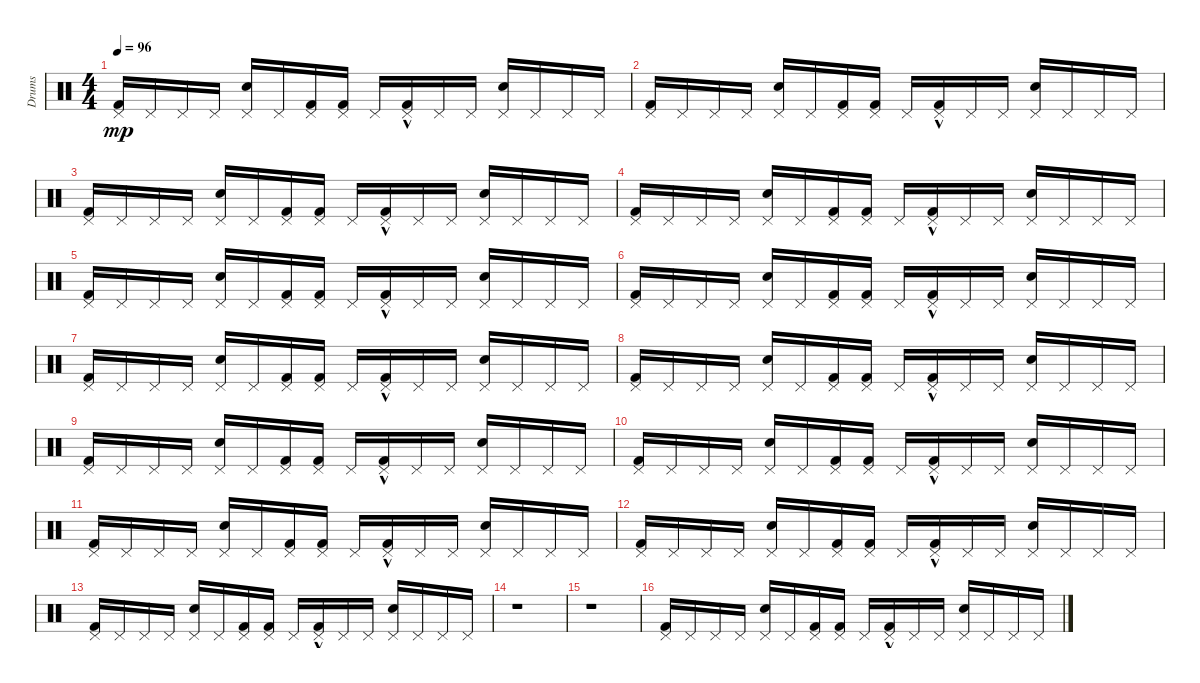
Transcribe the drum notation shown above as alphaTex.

\track ("Drums" "Drums") {instrument percussion}
\staff {score}
\articulation defaults
\ts (4 4)
\tempo 96
\clef neutral
\ks c
("Pedal Hi-Hat (hit)" "Kick (hit) 2").16{dy mp} "Pedal Hi-Hat (hit)".16 "Pedal Hi-Hat (hit)".16 "Pedal Hi-Hat (hit)".16 ("Electric Snare (hit)" "Pedal Hi-Hat (hit)").16 "Pedal Hi-Hat (hit)".16 ("Pedal Hi-Hat (hit)" "Kick (hit) 2").16 ("Pedal Hi-Hat (hit)" "Kick (hit) 2").16 "Pedal Hi-Hat (hit)".16 ("Pedal Hi-Hat (hit)" "Kick (hit) 2"{hac}).16 "Pedal Hi-Hat (hit)".16 "Pedal Hi-Hat (hit)".16 ("Electric Snare (hit)" "Pedal Hi-Hat (hit)").16 "Pedal Hi-Hat (hit)".16 "Pedal Hi-Hat (hit)".16 "Pedal Hi-Hat (hit)".16 |
("Pedal Hi-Hat (hit)" "Kick (hit) 2").16 "Pedal Hi-Hat (hit)".16 "Pedal Hi-Hat (hit)".16 "Pedal Hi-Hat (hit)".16 ("Electric Snare (hit)" "Pedal Hi-Hat (hit)").16 "Pedal Hi-Hat (hit)".16 ("Pedal Hi-Hat (hit)" "Kick (hit) 2").16 ("Pedal Hi-Hat (hit)" "Kick (hit) 2").16 "Pedal Hi-Hat (hit)".16 ("Pedal Hi-Hat (hit)" "Kick (hit) 2"{hac}).16 "Pedal Hi-Hat (hit)".16 "Pedal Hi-Hat (hit)".16 ("Electric Snare (hit)" "Pedal Hi-Hat (hit)").16 "Pedal Hi-Hat (hit)".16 "Pedal Hi-Hat (hit)".16 "Pedal Hi-Hat (hit)".16 |
("Pedal Hi-Hat (hit)" "Kick (hit) 2").16 "Pedal Hi-Hat (hit)".16 "Pedal Hi-Hat (hit)".16 "Pedal Hi-Hat (hit)".16 ("Electric Snare (hit)" "Pedal Hi-Hat (hit)").16 "Pedal Hi-Hat (hit)".16 ("Pedal Hi-Hat (hit)" "Kick (hit) 2").16 ("Pedal Hi-Hat (hit)" "Kick (hit) 2").16 "Pedal Hi-Hat (hit)".16 ("Pedal Hi-Hat (hit)" "Kick (hit) 2"{hac}).16 "Pedal Hi-Hat (hit)".16 "Pedal Hi-Hat (hit)".16 ("Electric Snare (hit)" "Pedal Hi-Hat (hit)").16 "Pedal Hi-Hat (hit)".16 "Pedal Hi-Hat (hit)".16 "Pedal Hi-Hat (hit)".16 |
("Pedal Hi-Hat (hit)" "Kick (hit) 2").16 "Pedal Hi-Hat (hit)".16 "Pedal Hi-Hat (hit)".16 "Pedal Hi-Hat (hit)".16 ("Electric Snare (hit)" "Pedal Hi-Hat (hit)").16 "Pedal Hi-Hat (hit)".16 ("Pedal Hi-Hat (hit)" "Kick (hit) 2").16 ("Pedal Hi-Hat (hit)" "Kick (hit) 2").16 "Pedal Hi-Hat (hit)".16 ("Pedal Hi-Hat (hit)" "Kick (hit) 2"{hac}).16 "Pedal Hi-Hat (hit)".16 "Pedal Hi-Hat (hit)".16 ("Electric Snare (hit)" "Pedal Hi-Hat (hit)").16 "Pedal Hi-Hat (hit)".16 "Pedal Hi-Hat (hit)".16 "Pedal Hi-Hat (hit)".16 |
("Pedal Hi-Hat (hit)" "Kick (hit) 2").16 "Pedal Hi-Hat (hit)".16 "Pedal Hi-Hat (hit)".16 "Pedal Hi-Hat (hit)".16 ("Electric Snare (hit)" "Pedal Hi-Hat (hit)").16 "Pedal Hi-Hat (hit)".16 ("Pedal Hi-Hat (hit)" "Kick (hit) 2").16 ("Pedal Hi-Hat (hit)" "Kick (hit) 2").16 "Pedal Hi-Hat (hit)".16 ("Pedal Hi-Hat (hit)" "Kick (hit) 2"{hac}).16 "Pedal Hi-Hat (hit)".16 "Pedal Hi-Hat (hit)".16 ("Electric Snare (hit)" "Pedal Hi-Hat (hit)").16 "Pedal Hi-Hat (hit)".16 "Pedal Hi-Hat (hit)".16 "Pedal Hi-Hat (hit)".16 |
("Pedal Hi-Hat (hit)" "Kick (hit) 2").16 "Pedal Hi-Hat (hit)".16 "Pedal Hi-Hat (hit)".16 "Pedal Hi-Hat (hit)".16 ("Electric Snare (hit)" "Pedal Hi-Hat (hit)").16 "Pedal Hi-Hat (hit)".16 ("Pedal Hi-Hat (hit)" "Kick (hit) 2").16 ("Pedal Hi-Hat (hit)" "Kick (hit) 2").16 "Pedal Hi-Hat (hit)".16 ("Pedal Hi-Hat (hit)" "Kick (hit) 2"{hac}).16 "Pedal Hi-Hat (hit)".16 "Pedal Hi-Hat (hit)".16 ("Electric Snare (hit)" "Pedal Hi-Hat (hit)").16 "Pedal Hi-Hat (hit)".16 "Pedal Hi-Hat (hit)".16 "Pedal Hi-Hat (hit)".16 |
("Pedal Hi-Hat (hit)" "Kick (hit) 2").16 "Pedal Hi-Hat (hit)".16 "Pedal Hi-Hat (hit)".16 "Pedal Hi-Hat (hit)".16 ("Electric Snare (hit)" "Pedal Hi-Hat (hit)").16 "Pedal Hi-Hat (hit)".16 ("Pedal Hi-Hat (hit)" "Kick (hit) 2").16 ("Pedal Hi-Hat (hit)" "Kick (hit) 2").16 "Pedal Hi-Hat (hit)".16 ("Pedal Hi-Hat (hit)" "Kick (hit) 2"{hac}).16 "Pedal Hi-Hat (hit)".16 "Pedal Hi-Hat (hit)".16 ("Electric Snare (hit)" "Pedal Hi-Hat (hit)").16 "Pedal Hi-Hat (hit)".16 "Pedal Hi-Hat (hit)".16 "Pedal Hi-Hat (hit)".16 |
("Pedal Hi-Hat (hit)" "Kick (hit) 2").16 "Pedal Hi-Hat (hit)".16 "Pedal Hi-Hat (hit)".16 "Pedal Hi-Hat (hit)".16 ("Electric Snare (hit)" "Pedal Hi-Hat (hit)").16 "Pedal Hi-Hat (hit)".16 ("Pedal Hi-Hat (hit)" "Kick (hit) 2").16 ("Pedal Hi-Hat (hit)" "Kick (hit) 2").16 "Pedal Hi-Hat (hit)".16 ("Pedal Hi-Hat (hit)" "Kick (hit) 2"{hac}).16 "Pedal Hi-Hat (hit)".16 "Pedal Hi-Hat (hit)".16 ("Electric Snare (hit)" "Pedal Hi-Hat (hit)").16 "Pedal Hi-Hat (hit)".16 "Pedal Hi-Hat (hit)".16 "Pedal Hi-Hat (hit)".16 |
("Pedal Hi-Hat (hit)" "Kick (hit) 2").16 "Pedal Hi-Hat (hit)".16 "Pedal Hi-Hat (hit)".16 "Pedal Hi-Hat (hit)".16 ("Electric Snare (hit)" "Pedal Hi-Hat (hit)").16 "Pedal Hi-Hat (hit)".16 ("Pedal Hi-Hat (hit)" "Kick (hit) 2").16 ("Pedal Hi-Hat (hit)" "Kick (hit) 2").16 "Pedal Hi-Hat (hit)".16 ("Pedal Hi-Hat (hit)" "Kick (hit) 2"{hac}).16 "Pedal Hi-Hat (hit)".16 "Pedal Hi-Hat (hit)".16 ("Electric Snare (hit)" "Pedal Hi-Hat (hit)").16 "Pedal Hi-Hat (hit)".16 "Pedal Hi-Hat (hit)".16 "Pedal Hi-Hat (hit)".16 |
("Pedal Hi-Hat (hit)" "Kick (hit) 2").16 "Pedal Hi-Hat (hit)".16 "Pedal Hi-Hat (hit)".16 "Pedal Hi-Hat (hit)".16 ("Electric Snare (hit)" "Pedal Hi-Hat (hit)").16 "Pedal Hi-Hat (hit)".16 ("Pedal Hi-Hat (hit)" "Kick (hit) 2").16 ("Pedal Hi-Hat (hit)" "Kick (hit) 2").16 "Pedal Hi-Hat (hit)".16 ("Pedal Hi-Hat (hit)" "Kick (hit) 2"{hac}).16 "Pedal Hi-Hat (hit)".16 "Pedal Hi-Hat (hit)".16 ("Electric Snare (hit)" "Pedal Hi-Hat (hit)").16 "Pedal Hi-Hat (hit)".16 "Pedal Hi-Hat (hit)".16 "Pedal Hi-Hat (hit)".16 |
("Pedal Hi-Hat (hit)" "Kick (hit) 2").16 "Pedal Hi-Hat (hit)".16 "Pedal Hi-Hat (hit)".16 "Pedal Hi-Hat (hit)".16 ("Electric Snare (hit)" "Pedal Hi-Hat (hit)").16 "Pedal Hi-Hat (hit)".16 ("Pedal Hi-Hat (hit)" "Kick (hit) 2").16 ("Pedal Hi-Hat (hit)" "Kick (hit) 2").16 "Pedal Hi-Hat (hit)".16 ("Pedal Hi-Hat (hit)" "Kick (hit) 2"{hac}).16 "Pedal Hi-Hat (hit)".16 "Pedal Hi-Hat (hit)".16 ("Electric Snare (hit)" "Pedal Hi-Hat (hit)").16 "Pedal Hi-Hat (hit)".16 "Pedal Hi-Hat (hit)".16 "Pedal Hi-Hat (hit)".16 |
("Pedal Hi-Hat (hit)" "Kick (hit) 2").16 "Pedal Hi-Hat (hit)".16 "Pedal Hi-Hat (hit)".16 "Pedal Hi-Hat (hit)".16 ("Electric Snare (hit)" "Pedal Hi-Hat (hit)").16 "Pedal Hi-Hat (hit)".16 ("Pedal Hi-Hat (hit)" "Kick (hit) 2").16 ("Pedal Hi-Hat (hit)" "Kick (hit) 2").16 "Pedal Hi-Hat (hit)".16 ("Pedal Hi-Hat (hit)" "Kick (hit) 2"{hac}).16 "Pedal Hi-Hat (hit)".16 "Pedal Hi-Hat (hit)".16 ("Electric Snare (hit)" "Pedal Hi-Hat (hit)").16 "Pedal Hi-Hat (hit)".16 "Pedal Hi-Hat (hit)".16 "Pedal Hi-Hat (hit)".16 |
("Pedal Hi-Hat (hit)" "Kick (hit) 2").16 "Pedal Hi-Hat (hit)".16 "Pedal Hi-Hat (hit)".16 "Pedal Hi-Hat (hit)".16 ("Electric Snare (hit)" "Pedal Hi-Hat (hit)").16 "Pedal Hi-Hat (hit)".16 ("Pedal Hi-Hat (hit)" "Kick (hit) 2").16 ("Pedal Hi-Hat (hit)" "Kick (hit) 2").16 "Pedal Hi-Hat (hit)".16 ("Pedal Hi-Hat (hit)" "Kick (hit) 2"{hac}).16 "Pedal Hi-Hat (hit)".16 "Pedal Hi-Hat (hit)".16 ("Electric Snare (hit)" "Pedal Hi-Hat (hit)").16 "Pedal Hi-Hat (hit)".16 "Pedal Hi-Hat (hit)".16 "Pedal Hi-Hat (hit)".16 |
r.1 |
r.1 |
("Pedal Hi-Hat (hit)" "Kick (hit) 2").16 "Pedal Hi-Hat (hit)".16 "Pedal Hi-Hat (hit)".16 "Pedal Hi-Hat (hit)".16 ("Electric Snare (hit)" "Pedal Hi-Hat (hit)").16 "Pedal Hi-Hat (hit)".16 ("Pedal Hi-Hat (hit)" "Kick (hit) 2").16 ("Pedal Hi-Hat (hit)" "Kick (hit) 2").16 "Pedal Hi-Hat (hit)".16 ("Pedal Hi-Hat (hit)" "Kick (hit) 2"{hac}).16 "Pedal Hi-Hat (hit)".16 "Pedal Hi-Hat (hit)".16 ("Electric Snare (hit)" "Pedal Hi-Hat (hit)").16 "Pedal Hi-Hat (hit)".16 "Pedal Hi-Hat (hit)".16 "Pedal Hi-Hat (hit)".16
